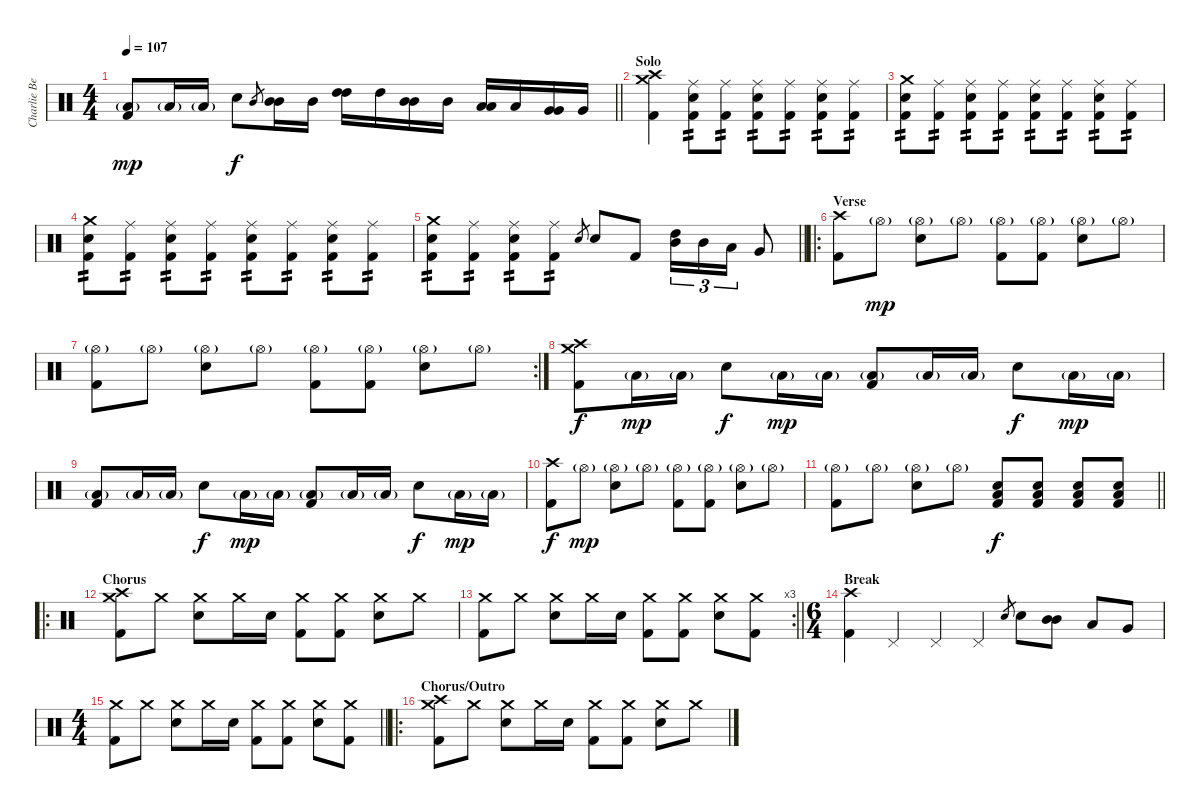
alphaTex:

\track ("Charlie Benante" "Charlie Be") {instrument percussion}
\staff {score}
\articulation defaults
\ts (4 4)
\tempo 107
\clef neutral
\barLineRight lightlight
\ks c
("Low Tom (hit)"{g} "Kick (hit) 2").8{dy mp} "Low Tom (hit)"{g}.16 "Low Tom (hit)"{g}.16 "Electric Snare (hit)".8{dy f} "Mid Tom (hit)".8{gr} ("Mid Tom (hit)" "Mid Tom (hit)").16 "Mid Tom (hit)".16 ("High Tom (hit)" "High Tom (hit)").16 "High Tom (hit)".16 ("Mid Tom (hit)" "Mid Tom (hit)").16 "Mid Tom (hit)".16 ("Low Tom (hit)" "Low Tom (hit)").16 "Low Tom (hit)".16 ("Very Low Tom (hit)" "Very Low Tom (hit)").16 "Very Low Tom (hit)".16 |
\section ("" "Solo")
("Crash high (hit)" "Crash medium (hit)" "Kick (hit) 2").4 ("Ride (middle)" "Electric Snare (hit)" "Kick (hit) 2").8{tp 2} ("Ride (middle)" "Kick (hit) 2").8{tp 2} ("Ride (middle)" "Electric Snare (hit)" "Kick (hit) 2").8{tp 2} ("Ride (middle)" "Kick (hit) 2").8{tp 2} ("Ride (middle)" "Electric Snare (hit)" "Kick (hit) 2").8{tp 2} ("Ride (middle)" "Kick (hit) 2").8{tp 2} |
("Crash medium (hit)" "Electric Snare (hit)" "Kick (hit) 2").8{tp 2} ("Ride (middle)" "Kick (hit) 2").8{tp 2} ("Ride (middle)" "Electric Snare (hit)" "Kick (hit) 2").8{tp 2} ("Ride (middle)" "Kick (hit) 2").8{tp 2} ("Ride (middle)" "Electric Snare (hit)" "Kick (hit) 2").8{tp 2} ("Ride (middle)" "Kick (hit) 2").8{tp 2} ("Ride (middle)" "Electric Snare (hit)" "Kick (hit) 2").8{tp 2} ("Ride (middle)" "Kick (hit) 2").8{tp 2} |
("Crash medium (hit)" "Electric Snare (hit)" "Kick (hit) 2").8{tp 2} ("Ride (middle)" "Kick (hit) 2").8{tp 2} ("Ride (middle)" "Electric Snare (hit)" "Kick (hit) 2").8{tp 2} ("Ride (middle)" "Kick (hit) 2").8{tp 2} ("Ride (middle)" "Electric Snare (hit)" "Kick (hit) 2").8{tp 2} ("Ride (middle)" "Kick (hit) 2").8{tp 2} ("Ride (middle)" "Electric Snare (hit)" "Kick (hit) 2").8{tp 2} ("Ride (middle)" "Kick (hit) 2").8{tp 2} |
\barLineRight lightlight
("Crash medium (hit)" "Electric Snare (hit)" "Kick (hit) 2").8{tp 2} ("Ride (middle)" "Kick (hit) 2").8{tp 2} ("Ride (middle)" "Electric Snare (hit)" "Kick (hit) 2").8{tp 2} ("Ride (middle)" "Kick (hit) 2").8{tp 2} "Electric Snare (hit)".8{gr} "Electric Snare (hit)".8 "Kick (hit) 2".8 ("Mid Tom (hit)" "High Tom (hit)").16{tu (3 2)} "Mid Tom (hit)".16{tu (3 2)} "Low Tom (hit)".16{tu (3 2)} "Very Low Tom (hit)".8 |
\ro
\section ("" "Verse")
("Crash high (hit)" "Kick (hit) 2").8 "Hi-Hat (open)"{g}.8{dy mp} ("Hi-Hat (open)"{g} "Electric Snare (hit)").8 "Hi-Hat (open)"{g}.8 ("Hi-Hat (open)"{g} "Kick (hit) 2").8 ("Hi-Hat (open)"{g} "Kick (hit) 2").8 ("Hi-Hat (open)"{g} "Electric Snare (hit)").8 "Hi-Hat (open)"{g}.8 |
\rc 2
("Hi-Hat (open)"{g} "Kick (hit) 2").8 "Hi-Hat (open)"{g}.8 ("Hi-Hat (open)"{g} "Electric Snare (hit)").8 "Hi-Hat (open)"{g}.8 ("Hi-Hat (open)"{g} "Kick (hit) 2").8 ("Hi-Hat (open)"{g} "Kick (hit) 2").8 ("Hi-Hat (open)"{g} "Electric Snare (hit)").8 "Hi-Hat (open)"{g}.8 |
("Crash high (hit)" "Crash medium (hit)" "Kick (hit) 2").8{dy f} "Low Tom (hit)"{g}.16{dy mp} "Low Tom (hit)"{g}.16 "Electric Snare (hit)".8{dy f} "Low Tom (hit)"{g}.16{dy mp} "Low Tom (hit)"{g}.16 ("Low Tom (hit)"{g} "Kick (hit) 2").8 "Low Tom (hit)"{g}.16 "Low Tom (hit)"{g}.16 "Electric Snare (hit)".8{dy f} "Low Tom (hit)"{g}.16{dy mp} "Low Tom (hit)"{g}.16 |
("Low Tom (hit)"{g} "Kick (hit) 2").8 "Low Tom (hit)"{g}.16 "Low Tom (hit)"{g}.16 "Electric Snare (hit)".8{dy f} "Low Tom (hit)"{g}.16{dy mp} "Low Tom (hit)"{g}.16 ("Low Tom (hit)"{g} "Kick (hit) 2").8 "Low Tom (hit)"{g}.16 "Low Tom (hit)"{g}.16 "Electric Snare (hit)".8{dy f} "Low Tom (hit)"{g}.16{dy mp} "Low Tom (hit)"{g}.16 |
("Crash high (hit)" "Kick (hit) 2").8{dy f} "Hi-Hat (open)"{g}.8{dy mp} ("Hi-Hat (open)"{g} "Electric Snare (hit)").8 "Hi-Hat (open)"{g}.8 ("Hi-Hat (open)"{g} "Kick (hit) 2").8 ("Hi-Hat (open)"{g} "Kick (hit) 2").8 ("Hi-Hat (open)"{g} "Electric Snare (hit)").8 "Hi-Hat (open)"{g}.8 |
\barLineRight lightlight
("Hi-Hat (open)"{g} "Kick (hit) 2").8 "Hi-Hat (open)"{g}.8 ("Hi-Hat (open)"{g} "Electric Snare (hit)").8 "Hi-Hat (open)"{g}.8 ("Electric Snare (hit)" "Low Floor Tom (hit)" "Kick (hit) 2").8{dy f} ("Electric Snare (hit)" "Low Floor Tom (hit)" "Kick (hit) 2").8 ("Electric Snare (hit)" "Low Floor Tom (hit)" "Kick (hit) 2").8 ("Electric Snare (hit)" "Low Floor Tom (hit)" "Kick (hit) 2").8 |
\ro
\section ("" "Chorus")
("Crash high (hit)" "Crash medium (hit)" "Kick (hit) 2").8 "Crash medium (hit)".8 ("Crash medium (hit)" "Electric Snare (hit)").8 "Crash medium (hit)".16 "Electric Snare (hit)".16 ("Crash medium (hit)" "Kick (hit) 2").8 ("Crash medium (hit)" "Kick (hit) 2").8 ("Crash medium (hit)" "Electric Snare (hit)").8 "Crash medium (hit)".8 |
\rc 3
\barLineRight lightlight
("Crash medium (hit)" "Kick (hit) 2").8 "Crash medium (hit)".8 ("Crash medium (hit)" "Electric Snare (hit)").8 "Crash medium (hit)".16 "Electric Snare (hit)".16 ("Crash medium (hit)" "Kick (hit) 2").8 ("Crash medium (hit)" "Kick (hit) 2").8 ("Crash medium (hit)" "Electric Snare (hit)").8 ("Crash medium (hit)" "Kick (hit) 2").8 |
\ts (6 4)
\section ("" "Break")
("Crash high (hit)" "Kick (hit) 2").4 "Pedal Hi-Hat (hit)".4 "Pedal Hi-Hat (hit)".4 "Pedal Hi-Hat (hit)".4 "Electric Snare (hit)".8{gr} "Electric Snare (hit)".8 ("Mid Tom (hit)" "Mid Tom (hit)").8 "Low Tom (hit)".8 "Very Low Tom (hit)".8 |
\ts (4 4)
\barLineRight lightlight
("Crash medium (hit)" "Kick (hit) 2").8 "Crash medium (hit)".8 ("Crash medium (hit)" "Electric Snare (hit)").8 "Crash medium (hit)".16 "Electric Snare (hit)".16 ("Crash medium (hit)" "Kick (hit) 2").8 ("Crash medium (hit)" "Kick (hit) 2").8 ("Crash medium (hit)" "Electric Snare (hit)").8 ("Crash medium (hit)" "Kick (hit) 2").8 |
\ro
\section ("" "Chorus/Outro")
("Crash high (hit)" "Crash medium (hit)" "Kick (hit) 2").8 "Crash medium (hit)".8 ("Crash medium (hit)" "Electric Snare (hit)").8 "Crash medium (hit)".16 "Electric Snare (hit)".16 ("Crash medium (hit)" "Kick (hit) 2").8 ("Crash medium (hit)" "Kick (hit) 2").8 ("Crash medium (hit)" "Electric Snare (hit)").8 "Crash medium (hit)".8
